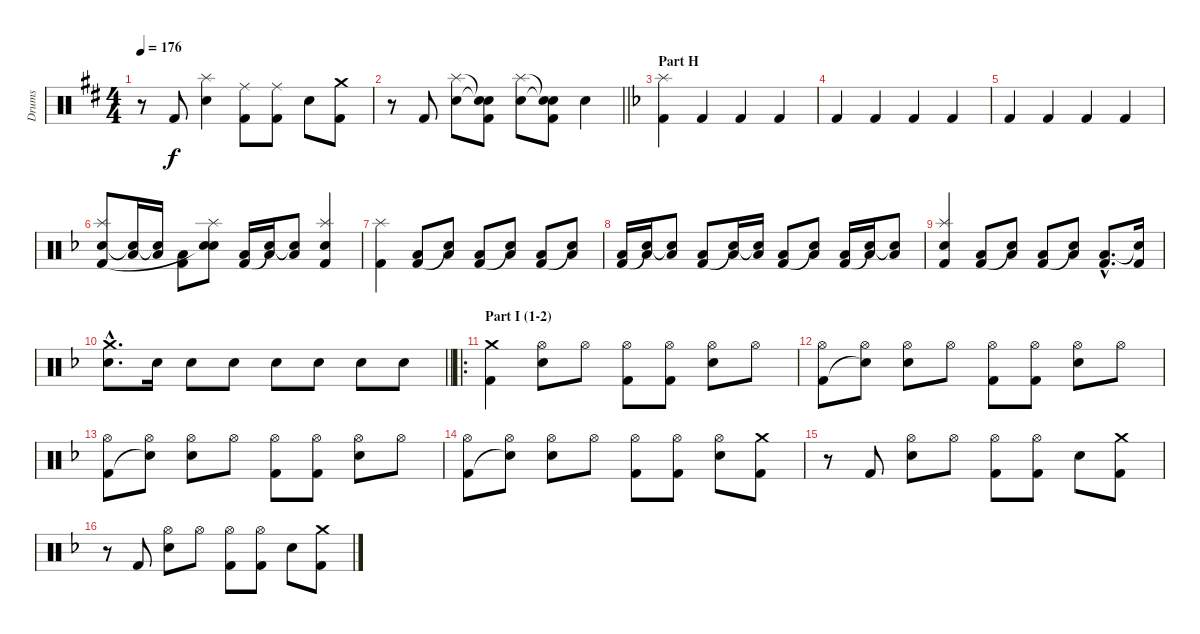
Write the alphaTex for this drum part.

\track ("Drums" "Drums") {instrument percussion}
\staff {score}
\articulation defaults
\ts (4 4)
\tempo 176
\clef neutral
\ks d
r.8{dy f} "Kick (hit) 2".8 ("Splash (hit)" "Electric Snare (hit)").4 ("Ride (middle)" "Kick (hit) 2").8 ("Ride (middle)" "Kick (hit) 2").8 "Electric Snare (hit)".8 ("Crash medium (hit)" "Kick (hit) 2").8 |
\barLineRight lightlight
r.8 "Kick (hit) 2".8 ("Splash (hit)" "Electric Snare (hit)").8 ("Snare (hit)"{t} "Snare (hit)"{t} "Kick (hit) 2").8 ("Splash (hit)" "Electric Snare (hit)").8 ("Snare (hit)"{t} "Snare (hit)"{t} "Kick (hit) 2").8 "Electric Snare (hit)".4 |
\section ("" "Part H")
\ks f
("Splash (hit)" "Kick (hit) 2").4 "Kick (hit) 2".4 "Kick (hit) 2".4 "Kick (hit) 2".4 |
"Kick (hit) 2".4 "Kick (hit) 2".4 "Kick (hit) 2".4 "Kick (hit) 2".4 |
"Kick (hit) 2".4 "Kick (hit) 2".4 "Kick (hit) 2".4 "Kick (hit) 2".4 |
("Splash (hit)" "Electric Snare (hit)" "Kick (hit) 2").8 ("Low Floor Tom (hit)" "Snare (hit)"{t}).16 ("Low Floor Tom (hit)" "Snare (hit)"{t}).16 ("Low Floor Tom (hit)" "Kick (hit) 2").8 ("Splash (hit)" "Electric Snare (hit)" "Snare (hit)"{t}).8 ("Low Floor Tom (hit)" "Kick (hit) 2").16 ("Low Floor Tom (hit)" "Snare (hit)"{t}).16 ("Low Floor Tom (hit)" "Snare (hit)"{t}).8 ("Splash (hit)" "Electric Snare (hit)" "Kick (hit) 2").4 |
("Splash (hit)" "Kick (hit) 2").4 ("Low Floor Tom (hit)" "Kick (hit) 2").8 ("Low Floor Tom (hit)" "Snare (hit)"{t}).8 ("Low Floor Tom (hit)" "Kick (hit) 2").8 ("Low Floor Tom (hit)" "Snare (hit)"{t}).8 ("Low Floor Tom (hit)" "Kick (hit) 2").8 ("Low Floor Tom (hit)" "Snare (hit)"{t}).8 |
("Low Floor Tom (hit)" "Kick (hit) 2").16 ("Low Floor Tom (hit)" "Snare (hit)"{t}).16 ("Low Floor Tom (hit)" "Snare (hit)"{t}).8 ("Low Floor Tom (hit)" "Kick (hit) 2").8 ("Low Floor Tom (hit)" "Snare (hit)"{t}).16 ("Low Floor Tom (hit)" "Snare (hit)"{t}).16 ("Low Floor Tom (hit)" "Kick (hit) 2").8 ("Low Floor Tom (hit)" "Snare (hit)"{t}).8 ("Low Floor Tom (hit)" "Kick (hit) 2").16 ("Low Floor Tom (hit)" "Snare (hit)"{t}).16 ("Low Floor Tom (hit)" "Snare (hit)"{t}).8 |
("Splash (hit)" "Electric Snare (hit)" "Kick (hit) 2").4 ("Low Floor Tom (hit)" "Kick (hit) 2").8 ("Low Floor Tom (hit)" "Snare (hit)"{t}).8 ("Low Floor Tom (hit)" "Kick (hit) 2").8 ("Low Floor Tom (hit)" "Snare (hit)"{t}).8 ("Low Floor Tom (hit)"{hac} "Kick (hit) 2"{hac}).8{d} ("Snare (hit)"{t} "Kick (hit) 2").16 |
\barLineRight lightlight
("Crash medium (hit)"{hac} "Electric Snare (hit)"{hac}).8{d} "Electric Snare (hit)".16 "Electric Snare (hit)".8 "Electric Snare (hit)".8 "Electric Snare (hit)".8 "Electric Snare (hit)".8 "Electric Snare (hit)".8 "Electric Snare (hit)".8 |
\ro
\section ("" "Part I (1-2)")
("Crash medium (hit)" "Kick (hit) 2").4 ("Hi-Hat (open)" "Electric Snare (hit)").8 "Hi-Hat (open)".8 ("Hi-Hat (open)" "Kick (hit) 2").8 ("Hi-Hat (open)" "Kick (hit) 2").8 ("Hi-Hat (open)" "Electric Snare (hit)").8 "Hi-Hat (open)".8 |
("Hi-Hat (open)" "Kick (hit) 2").8 ("Hi-Hat (open)" "Snare (hit)"{t}).8 ("Hi-Hat (open)" "Electric Snare (hit)").8 "Hi-Hat (open)".8 ("Hi-Hat (open)" "Kick (hit) 2").8 ("Hi-Hat (open)" "Kick (hit) 2").8 ("Hi-Hat (open)" "Electric Snare (hit)").8 "Hi-Hat (open)".8 |
("Hi-Hat (open)" "Kick (hit) 2").8 ("Hi-Hat (open)" "Snare (hit)"{t}).8 ("Hi-Hat (open)" "Electric Snare (hit)").8 "Hi-Hat (open)".8 ("Hi-Hat (open)" "Kick (hit) 2").8 ("Hi-Hat (open)" "Kick (hit) 2").8 ("Hi-Hat (open)" "Electric Snare (hit)").8 "Hi-Hat (open)".8 |
("Hi-Hat (open)" "Kick (hit) 2").8 ("Hi-Hat (open)" "Snare (hit)"{t}).8 ("Hi-Hat (open)" "Electric Snare (hit)").8 "Hi-Hat (open)".8 ("Hi-Hat (open)" "Kick (hit) 2").8 ("Hi-Hat (open)" "Kick (hit) 2").8 ("Hi-Hat (open)" "Electric Snare (hit)").8 ("Crash medium (hit)" "Kick (hit) 2").8 |
r.8 "Kick (hit) 2".8 ("Hi-Hat (open)" "Electric Snare (hit)").8 "Hi-Hat (open)".8 ("Hi-Hat (open)" "Kick (hit) 2").8 ("Hi-Hat (open)" "Kick (hit) 2").8 "Electric Snare (hit)".8 ("Crash medium (hit)" "Kick (hit) 2").8 |
r.8 "Kick (hit) 2".8 ("Hi-Hat (open)" "Electric Snare (hit)").8 "Hi-Hat (open)".8 ("Hi-Hat (open)" "Kick (hit) 2").8 ("Hi-Hat (open)" "Kick (hit) 2").8 "Electric Snare (hit)".8 ("Crash medium (hit)" "Kick (hit) 2").8
